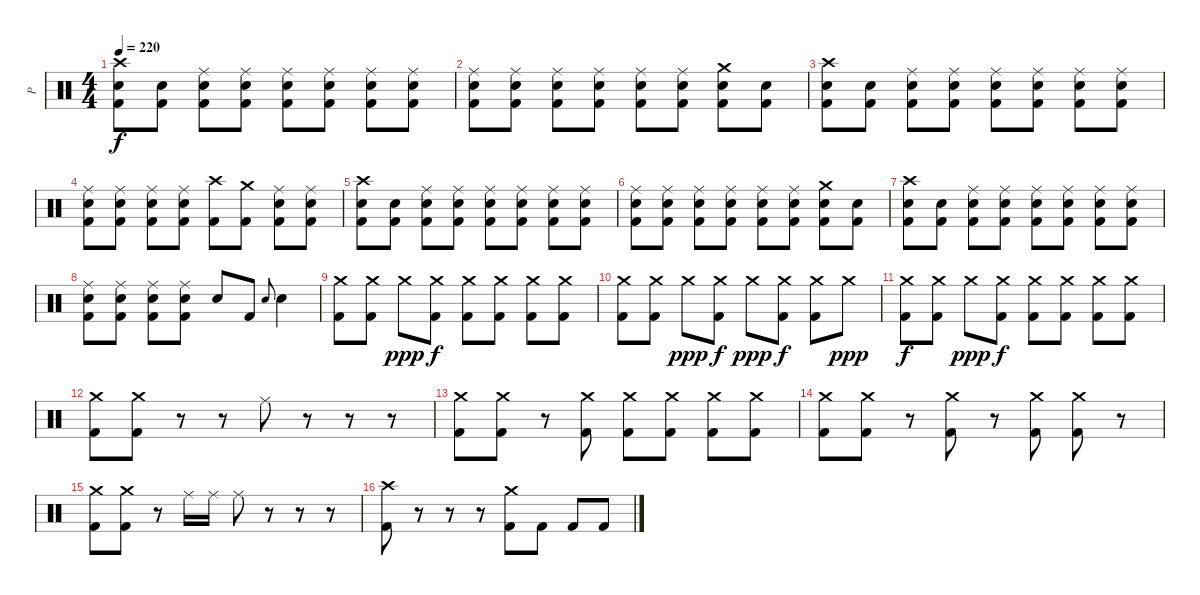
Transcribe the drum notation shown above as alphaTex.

\track ("P" "P") {instrument percussion}
\staff {score}
\articulation defaults
\ts (4 4)
\tempo 220
\clef neutral
\ks c
("Crash high (hit)" "Electric Snare (hit)" "Kick (hit) 2").8{dy f} ("Electric Snare (hit)" "Kick (hit) 2").8 ("Ride (middle)" "Electric Snare (hit)" "Kick (hit) 2").8 ("Ride (middle)" "Electric Snare (hit)" "Kick (hit) 2").8 ("Ride (middle)" "Electric Snare (hit)" "Kick (hit) 2").8 ("Ride (middle)" "Electric Snare (hit)" "Kick (hit) 2").8 ("Ride (middle)" "Electric Snare (hit)" "Kick (hit) 2").8 ("Ride (middle)" "Electric Snare (hit)" "Kick (hit) 2").8 |
("Ride (middle)" "Electric Snare (hit)" "Kick (hit) 2").8 ("Ride (middle)" "Electric Snare (hit)" "Kick (hit) 2").8 ("Ride (middle)" "Electric Snare (hit)" "Kick (hit) 2").8 ("Ride (middle)" "Electric Snare (hit)" "Kick (hit) 2").8 ("Ride (middle)" "Electric Snare (hit)" "Kick (hit) 2").8 ("Ride (middle)" "Electric Snare (hit)" "Kick (hit) 2").8 ("Crash medium (hit)" "Electric Snare (hit)" "Kick (hit) 2").8 ("Electric Snare (hit)" "Kick (hit) 2").8 |
("Crash high (hit)" "Electric Snare (hit)" "Kick (hit) 2").8 ("Electric Snare (hit)" "Kick (hit) 2").8 ("Ride (middle)" "Electric Snare (hit)" "Kick (hit) 2").8 ("Ride (middle)" "Electric Snare (hit)" "Kick (hit) 2").8 ("Ride (middle)" "Electric Snare (hit)" "Kick (hit) 2").8 ("Ride (middle)" "Electric Snare (hit)" "Kick (hit) 2").8 ("Ride (middle)" "Electric Snare (hit)" "Kick (hit) 2").8 ("Ride (middle)" "Electric Snare (hit)" "Kick (hit) 2").8 |
("Ride (middle)" "Electric Snare (hit)" "Kick (hit) 2").8 ("Ride (middle)" "Electric Snare (hit)" "Kick (hit) 2").8 ("Ride (middle)" "Electric Snare (hit)" "Kick (hit) 2").8 ("Ride (middle)" "Electric Snare (hit)" "Kick (hit) 2").8 ("Crash high (hit)" "Kick (hit) 2").8 ("Crash medium (hit)" "Kick (hit) 2").8 ("Ride (middle)" "Electric Snare (hit)" "Kick (hit) 2").8 ("Ride (middle)" "Electric Snare (hit)" "Kick (hit) 2").8 |
("Crash high (hit)" "Electric Snare (hit)" "Kick (hit) 2").8 ("Electric Snare (hit)" "Kick (hit) 2").8 ("Ride (middle)" "Electric Snare (hit)" "Kick (hit) 2").8 ("Ride (middle)" "Electric Snare (hit)" "Kick (hit) 2").8 ("Ride (middle)" "Electric Snare (hit)" "Kick (hit) 2").8 ("Ride (middle)" "Electric Snare (hit)" "Kick (hit) 2").8 ("Ride (middle)" "Electric Snare (hit)" "Kick (hit) 2").8 ("Ride (middle)" "Electric Snare (hit)" "Kick (hit) 2").8 |
("Ride (middle)" "Electric Snare (hit)" "Kick (hit) 2").8 ("Ride (middle)" "Electric Snare (hit)" "Kick (hit) 2").8 ("Ride (middle)" "Electric Snare (hit)" "Kick (hit) 2").8 ("Ride (middle)" "Electric Snare (hit)" "Kick (hit) 2").8 ("Ride (middle)" "Electric Snare (hit)" "Kick (hit) 2").8 ("Ride (middle)" "Electric Snare (hit)" "Kick (hit) 2").8 ("Crash medium (hit)" "Electric Snare (hit)" "Kick (hit) 2").8 ("Electric Snare (hit)" "Kick (hit) 2").8 |
("Crash high (hit)" "Electric Snare (hit)" "Kick (hit) 2").8 ("Electric Snare (hit)" "Kick (hit) 2").8 ("Ride (middle)" "Electric Snare (hit)" "Kick (hit) 2").8 ("Ride (middle)" "Electric Snare (hit)" "Kick (hit) 2").8 ("Ride (middle)" "Electric Snare (hit)" "Kick (hit) 2").8 ("Ride (middle)" "Electric Snare (hit)" "Kick (hit) 2").8 ("Ride (middle)" "Electric Snare (hit)" "Kick (hit) 2").8 ("Ride (middle)" "Electric Snare (hit)" "Kick (hit) 2").8 |
("Ride (middle)" "Electric Snare (hit)" "Kick (hit) 2").8 ("Ride (middle)" "Electric Snare (hit)" "Kick (hit) 2").8 ("Ride (middle)" "Electric Snare (hit)" "Kick (hit) 2").8 ("Ride (middle)" "Electric Snare (hit)" "Kick (hit) 2").8 "Electric Snare (hit)".8 "Kick (hit) 2".8 "Electric Snare (hit)".8{gr onbeat} "Electric Snare (hit)".4 |
("Crash medium (hit)" "Kick (hit) 2").8 ("Crash medium (hit)" "Kick (hit) 2").8 "Crash medium (hit)".8{dy ppp} ("Crash medium (hit)" "Kick (hit) 2").8{dy f} ("Crash medium (hit)" "Kick (hit) 2").8 ("Crash medium (hit)" "Kick (hit) 2").8 ("Crash medium (hit)" "Kick (hit) 2").8 ("Crash medium (hit)" "Kick (hit) 2").8 |
("Crash medium (hit)" "Kick (hit) 2").8 ("Crash medium (hit)" "Kick (hit) 2").8 "Crash medium (hit)".8{dy ppp} ("Crash medium (hit)" "Kick (hit) 2").8{dy f} "Crash medium (hit)".8{dy ppp} ("Crash medium (hit)" "Kick (hit) 2").8{dy f} ("Crash medium (hit)" "Kick (hit) 2").8 "Crash medium (hit)".8{dy ppp} |
("Crash medium (hit)" "Kick (hit) 2").8{dy f} ("Crash medium (hit)" "Kick (hit) 2").8 "Crash medium (hit)".8{dy ppp} ("Crash medium (hit)" "Kick (hit) 2").8{dy f} ("Crash medium (hit)" "Kick (hit) 2").8 ("Crash medium (hit)" "Kick (hit) 2").8 ("Crash medium (hit)" "Kick (hit) 2").8 ("Crash medium (hit)" "Kick (hit) 2").8 |
("Crash medium (hit)" "Kick (hit) 2").8 ("Crash medium (hit)" "Kick (hit) 2").8 r.8 r.8 "Ride (middle)".8 r.8 r.8 r.8 |
("Crash medium (hit)" "Kick (hit) 2").8 ("Crash medium (hit)" "Kick (hit) 2").8 r.8 ("Crash medium (hit)" "Kick (hit) 2").8 ("Crash medium (hit)" "Kick (hit) 2").8 ("Crash medium (hit)" "Kick (hit) 2").8 ("Crash medium (hit)" "Kick (hit) 2").8 ("Crash medium (hit)" "Kick (hit) 2").8 |
("Crash medium (hit)" "Kick (hit) 2").8 ("Crash medium (hit)" "Kick (hit) 2").8 r.8 ("Crash medium (hit)" "Kick (hit) 2").8 r.8 ("Crash medium (hit)" "Kick (hit) 2").8 ("Crash medium (hit)" "Kick (hit) 2").8 r.8 |
("Crash medium (hit)" "Kick (hit) 2").8 ("Crash medium (hit)" "Kick (hit) 2").8 r.8 "Ride (middle)".16 "Ride (middle)".16 "Ride (middle)".8 r.8 r.8 r.8 |
("Crash high (hit)" "Kick (hit) 2").8 r.8 r.8 r.8 ("Crash medium (hit)" "Kick (hit) 2").8 "Kick (hit) 2".8 "Kick (hit) 2".8 "Kick (hit) 2".8
